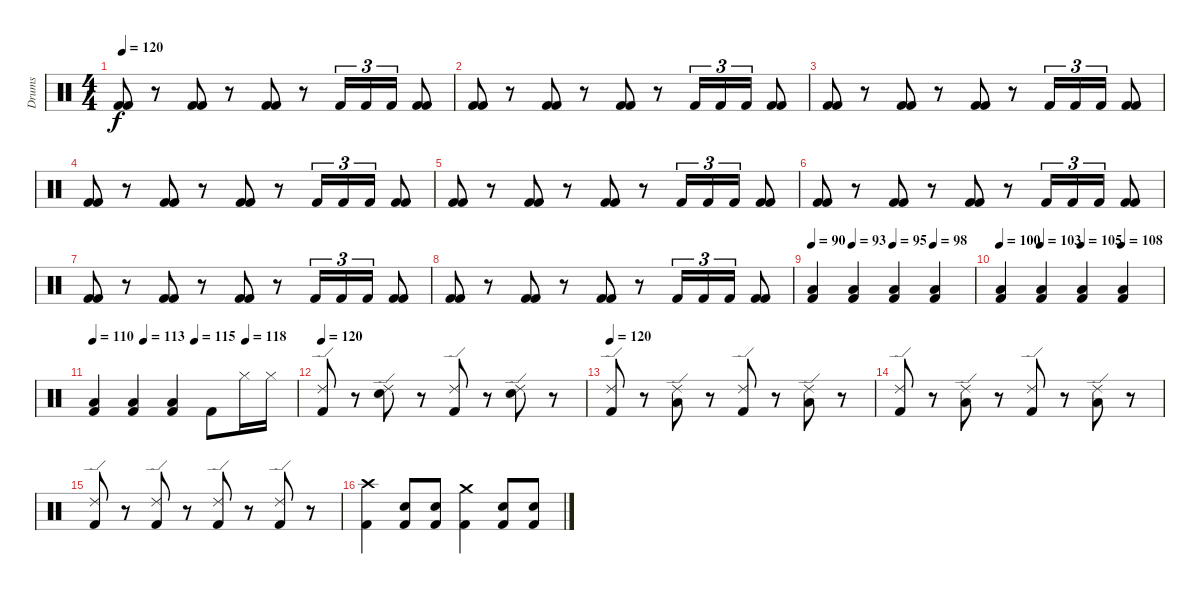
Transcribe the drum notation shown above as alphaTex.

\track ("Drums" "Drums") {instrument percussion}
\staff {score}
\articulation defaults
\ts (4 4)
\tempo 120
\tempo 100
\tempo 120
\clef neutral
\ks c
("Kick (hit) 2" "Kick (hit) 2").8{dy f} r.8 ("Kick (hit) 2" "Kick (hit) 2").8 r.8 ("Kick (hit) 2" "Kick (hit) 2").8 r.8 "Kick (hit) 2".16{tu (3 2)} "Kick (hit) 2".16{tu (3 2)} "Kick (hit) 2".16{tu (3 2)} ("Kick (hit) 2" "Kick (hit) 2").8 |
("Kick (hit) 2" "Kick (hit) 2").8 r.8 ("Kick (hit) 2" "Kick (hit) 2").8 r.8 ("Kick (hit) 2" "Kick (hit) 2").8 r.8 "Kick (hit) 2".16{tu (3 2)} "Kick (hit) 2".16{tu (3 2)} "Kick (hit) 2".16{tu (3 2)} ("Kick (hit) 2" "Kick (hit) 2").8 |
("Kick (hit) 2" "Kick (hit) 2").8 r.8 ("Kick (hit) 2" "Kick (hit) 2").8 r.8 ("Kick (hit) 2" "Kick (hit) 2").8 r.8 "Kick (hit) 2".16{tu (3 2)} "Kick (hit) 2".16{tu (3 2)} "Kick (hit) 2".16{tu (3 2)} ("Kick (hit) 2" "Kick (hit) 2").8 |
("Kick (hit) 2" "Kick (hit) 2").8 r.8 ("Kick (hit) 2" "Kick (hit) 2").8 r.8 ("Kick (hit) 2" "Kick (hit) 2").8 r.8 "Kick (hit) 2".16{tu (3 2)} "Kick (hit) 2".16{tu (3 2)} "Kick (hit) 2".16{tu (3 2)} ("Kick (hit) 2" "Kick (hit) 2").8 |
("Kick (hit) 2" "Kick (hit) 2").8 r.8 ("Kick (hit) 2" "Kick (hit) 2").8 r.8 ("Kick (hit) 2" "Kick (hit) 2").8 r.8 "Kick (hit) 2".16{tu (3 2)} "Kick (hit) 2".16{tu (3 2)} "Kick (hit) 2".16{tu (3 2)} ("Kick (hit) 2" "Kick (hit) 2").8 |
("Kick (hit) 2" "Kick (hit) 2").8 r.8 ("Kick (hit) 2" "Kick (hit) 2").8 r.8 ("Kick (hit) 2" "Kick (hit) 2").8 r.8 "Kick (hit) 2".16{tu (3 2)} "Kick (hit) 2".16{tu (3 2)} "Kick (hit) 2".16{tu (3 2)} ("Kick (hit) 2" "Kick (hit) 2").8 |
("Kick (hit) 2" "Kick (hit) 2").8 r.8 ("Kick (hit) 2" "Kick (hit) 2").8 r.8 ("Kick (hit) 2" "Kick (hit) 2").8 r.8 "Kick (hit) 2".16{tu (3 2)} "Kick (hit) 2".16{tu (3 2)} "Kick (hit) 2".16{tu (3 2)} ("Kick (hit) 2" "Kick (hit) 2").8 |
("Kick (hit) 2" "Kick (hit) 2").8 r.8 ("Kick (hit) 2" "Kick (hit) 2").8 r.8 ("Kick (hit) 2" "Kick (hit) 2").8 r.8 "Kick (hit) 2".16{tu (3 2)} "Kick (hit) 2".16{tu (3 2)} "Kick (hit) 2".16{tu (3 2)} ("Kick (hit) 2" "Kick (hit) 2").8 |
\tempo 90
\tempo (93 0.25)
\tempo (95 0.5)
\tempo (98 0.75)
("Low Floor Tom (hit)" "Kick (hit) 2").4 ("Low Floor Tom (hit)" "Kick (hit) 2").4 ("Low Floor Tom (hit)" "Kick (hit) 2").4 ("Low Floor Tom (hit)" "Kick (hit) 2").4 |
\tempo 100
\tempo (103 0.25)
\tempo (105 0.5)
\tempo (108 0.75)
("Low Floor Tom (hit)" "Kick (hit) 2").4 ("Low Floor Tom (hit)" "Kick (hit) 2").4 ("Low Floor Tom (hit)" "Kick (hit) 2").4 ("Low Floor Tom (hit)" "Kick (hit) 2").4 |
\tempo 110
\tempo (113 0.25)
\tempo (115 0.5)
\tempo (118 0.75)
("Low Floor Tom (hit)" "Kick (hit) 2").4 ("Low Floor Tom (hit)" "Kick (hit) 2").4 ("Low Floor Tom (hit)" "Kick (hit) 2").4 "Kick (hit) 2".8 "Hi-Hat (closed)".16 "Hi-Hat (closed)".16 |
\tempo 120
("Ride (edge) 2" "Kick (hit) 2").8 r.8 ("Ride (edge) 2" "Snare (hit) 2").8 r.8 ("Ride (edge) 2" "Kick (hit) 2").8 r.8 ("Ride (edge) 2" "Snare (hit) 2").8 r.8 |
\tempo 120
("Ride (edge) 2" "Kick (hit) 2").8 r.8 ("Ride (edge) 2" "Low Floor Tom (hit)").8 r.8 ("Ride (edge) 2" "Kick (hit) 2").8 r.8 ("Ride (edge) 2" "Low Floor Tom (hit)").8 r.8 |
("Ride (edge) 2" "Kick (hit) 2").8 r.8 ("Ride (edge) 2" "Low Floor Tom (hit)").8 r.8 ("Ride (edge) 2" "Kick (hit) 2").8 r.8 ("Ride (edge) 2" "Low Floor Tom (hit)").8 r.8 |
("Ride (edge) 2" "Kick (hit) 2").8 r.8 ("Ride (edge) 2" "Kick (hit) 2").8 r.8 ("Ride (edge) 2" "Kick (hit) 2").8 r.8 ("Ride (edge) 2" "Kick (hit) 2").8 r.8 |
("Crash high (hit)" "Kick (hit) 2").4 ("Snare (hit) 2" "Kick (hit) 2").8 ("Snare (hit) 2" "Kick (hit) 2").8 ("Crash medium (hit)" "Kick (hit) 2").4 ("Snare (hit) 2" "Kick (hit) 2").8 ("Snare (hit) 2" "Kick (hit) 2").8
